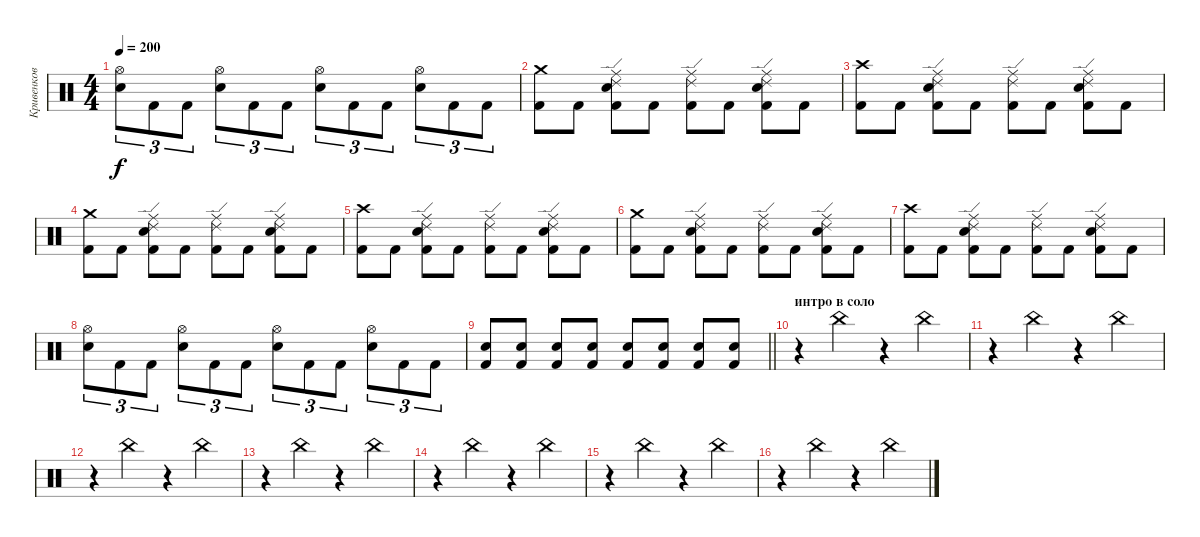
\track ("Кривенков" "Кривенков") {instrument percussion}
\staff {score}
\articulation defaults
\ts (4 4)
\tempo 200
\clef neutral
\ks c
("Hi-Hat (open)" "Electric Snare (hit)").8{tu (3 2) dy f} "Kick (hit) 2".8{tu (3 2)} "Kick (hit) 2".8{tu (3 2)} ("Hi-Hat (open)" "Electric Snare (hit)").8{tu (3 2)} "Kick (hit) 2".8{tu (3 2)} "Kick (hit) 2".8{tu (3 2)} ("Hi-Hat (open)" "Electric Snare (hit)").8{tu (3 2)} "Kick (hit) 2".8{tu (3 2)} "Kick (hit) 2".8{tu (3 2)} ("Hi-Hat (open)" "Electric Snare (hit)").8{tu (3 2)} "Kick (hit) 2".8{tu (3 2)} "Kick (hit) 2".8{tu (3 2)} |
("Crash medium (hit)" "Kick (hit) 2").8 "Kick (hit) 2".8 ("Ride (edge) 2" "Ride (middle)" "Electric Snare (hit)" "Kick (hit) 2").8 "Kick (hit) 2".8 ("Ride (edge) 2" "Ride (middle)" "Kick (hit) 2").8 "Kick (hit) 2".8 ("Ride (edge) 2" "Ride (middle)" "Electric Snare (hit)" "Kick (hit) 2").8 "Kick (hit) 2".8 |
("Crash high (hit)" "Kick (hit) 2").8 "Kick (hit) 2".8 ("Ride (edge) 2" "Ride (middle)" "Electric Snare (hit)" "Kick (hit) 2").8 "Kick (hit) 2".8 ("Ride (edge) 2" "Ride (middle)" "Kick (hit) 2").8 "Kick (hit) 2".8 ("Ride (edge) 2" "Ride (middle)" "Electric Snare (hit)" "Kick (hit) 2").8 "Kick (hit) 2".8 |
("Crash medium (hit)" "Kick (hit) 2").8 "Kick (hit) 2".8 ("Ride (edge) 2" "Ride (middle)" "Electric Snare (hit)" "Kick (hit) 2").8 "Kick (hit) 2".8 ("Ride (edge) 2" "Ride (middle)" "Kick (hit) 2").8 "Kick (hit) 2".8 ("Ride (edge) 2" "Ride (middle)" "Electric Snare (hit)" "Kick (hit) 2").8 "Kick (hit) 2".8 |
("Crash high (hit)" "Kick (hit) 2").8 "Kick (hit) 2".8 ("Ride (edge) 2" "Ride (middle)" "Electric Snare (hit)" "Kick (hit) 2").8 "Kick (hit) 2".8 ("Ride (edge) 2" "Ride (middle)" "Kick (hit) 2").8 "Kick (hit) 2".8 ("Ride (edge) 2" "Ride (middle)" "Electric Snare (hit)" "Kick (hit) 2").8 "Kick (hit) 2".8 |
("Crash medium (hit)" "Kick (hit) 2").8 "Kick (hit) 2".8 ("Ride (edge) 2" "Ride (middle)" "Electric Snare (hit)" "Kick (hit) 2").8 "Kick (hit) 2".8 ("Ride (edge) 2" "Ride (middle)" "Kick (hit) 2").8 "Kick (hit) 2".8 ("Ride (edge) 2" "Ride (middle)" "Electric Snare (hit)" "Kick (hit) 2").8 "Kick (hit) 2".8 |
("Crash high (hit)" "Kick (hit) 2").8 "Kick (hit) 2".8 ("Ride (edge) 2" "Ride (middle)" "Electric Snare (hit)" "Kick (hit) 2").8 "Kick (hit) 2".8 ("Ride (edge) 2" "Ride (middle)" "Kick (hit) 2").8 "Kick (hit) 2".8 ("Ride (edge) 2" "Ride (middle)" "Electric Snare (hit)" "Kick (hit) 2").8 "Kick (hit) 2".8 |
("Hi-Hat (open)" "Electric Snare (hit)").8{tu (3 2)} "Kick (hit) 2".8{tu (3 2)} "Kick (hit) 2".8{tu (3 2)} ("Hi-Hat (open)" "Electric Snare (hit)").8{tu (3 2)} "Kick (hit) 2".8{tu (3 2)} "Kick (hit) 2".8{tu (3 2)} ("Hi-Hat (open)" "Electric Snare (hit)").8{tu (3 2)} "Kick (hit) 2".8{tu (3 2)} "Kick (hit) 2".8{tu (3 2)} ("Hi-Hat (open)" "Electric Snare (hit)").8{tu (3 2)} "Kick (hit) 2".8{tu (3 2)} "Kick (hit) 2".8{tu (3 2)} |
\barLineRight lightlight
("Electric Snare (hit)" "Kick (hit) 2").8 ("Electric Snare (hit)" "Kick (hit) 2").8 ("Electric Snare (hit)" "Kick (hit) 2").8 ("Electric Snare (hit)" "Kick (hit) 2").8 ("Electric Snare (hit)" "Kick (hit) 2").8 ("Electric Snare (hit)" "Kick (hit) 2").8 ("Electric Snare (hit)" "Kick (hit) 2").8 ("Electric Snare (hit)" "Kick (hit) 2").8 |
\section ("" "интро в соло")
r.4{volume 0} "China (hit)".4{volume 10} r.4{volume 0} "China (hit)".4{volume 10} |
r.4{volume 0} "China (hit)".4{volume 10} r.4{volume 0} "China (hit)".4{volume 10} |
r.4{volume 0} "China (hit)".4{volume 10} r.4{volume 0} "China (hit)".4{volume 10} |
r.4{volume 0} "China (hit)".4{volume 10} r.4{volume 0} "China (hit)".4{volume 10} |
r.4{volume 0} "China (hit)".4{volume 10} r.4{volume 0} "China (hit)".4{volume 10} |
r.4{volume 0} "China (hit)".4{volume 10} r.4{volume 0} "China (hit)".4{volume 10} |
r.4{volume 0} "China (hit)".4{volume 10} r.4{volume 0} "China (hit)".4{volume 10}
